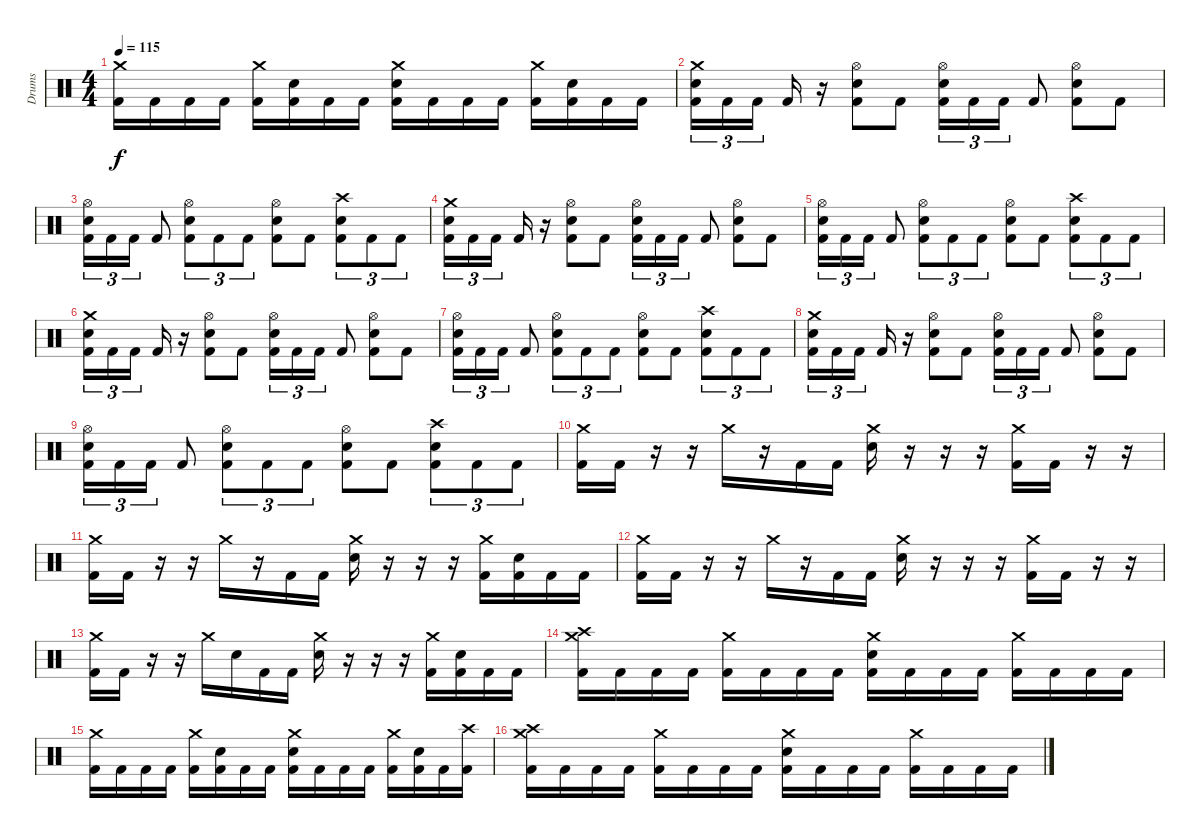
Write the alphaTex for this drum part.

\track ("Drums" "Drums") {instrument percussion}
\staff {score}
\articulation defaults
\ts (4 4)
\tempo 115
\clef neutral
\ks c
("Crash medium (hit)" "Kick (hit) 2").16{dy f} "Kick (hit) 2".16 "Kick (hit) 2".16 "Kick (hit) 2".16 ("Crash medium (hit)" "Kick (hit) 2").16 ("Snare (hit) 2" "Kick (hit) 2").16 "Kick (hit) 2".16 "Kick (hit) 2".16 ("Crash medium (hit)" "Snare (hit) 2" "Kick (hit) 2").16 "Kick (hit) 2".16 "Kick (hit) 2".16 "Kick (hit) 2".16 ("Crash medium (hit)" "Kick (hit) 2").16 ("Snare (hit) 2" "Kick (hit) 2").16 "Kick (hit) 2".16 "Kick (hit) 2".16 |
("Crash medium (hit)" "Snare (hit) 2" "Kick (hit) 2").16{tu (3 2)} "Kick (hit) 2".16{tu (3 2)} "Kick (hit) 2".16{tu (3 2) beam splitsecondary} "Kick (hit) 2".16 r.16 ("Hi-Hat (open)" "Snare (hit) 2" "Kick (hit) 2").8 "Kick (hit) 2".8 ("Hi-Hat (open)" "Snare (hit) 2" "Kick (hit) 2").16{tu (3 2)} "Kick (hit) 2".16{tu (3 2)} "Kick (hit) 2".16{tu (3 2)} "Kick (hit) 2".8 ("Hi-Hat (open)" "Snare (hit) 2" "Kick (hit) 2").8 "Kick (hit) 2".8 |
("Hi-Hat (open)" "Snare (hit) 2" "Kick (hit) 2").16{tu (3 2)} "Kick (hit) 2".16{tu (3 2)} "Kick (hit) 2".16{tu (3 2)} "Kick (hit) 2".8 ("Hi-Hat (open)" "Snare (hit) 2" "Kick (hit) 2").8{tu (3 2)} "Kick (hit) 2".8{tu (3 2)} "Kick (hit) 2".8{tu (3 2)} ("Hi-Hat (open)" "Snare (hit) 2" "Kick (hit) 2").8 "Kick (hit) 2".8 ("Crash high (hit)" "Snare (hit) 2" "Kick (hit) 2").8{tu (3 2)} "Kick (hit) 2".8{tu (3 2)} "Kick (hit) 2".8{tu (3 2)} |
("Crash medium (hit)" "Snare (hit) 2" "Kick (hit) 2").16{tu (3 2)} "Kick (hit) 2".16{tu (3 2)} "Kick (hit) 2".16{tu (3 2) beam splitsecondary} "Kick (hit) 2".16 r.16 ("Hi-Hat (open)" "Snare (hit) 2" "Kick (hit) 2").8 "Kick (hit) 2".8 ("Hi-Hat (open)" "Snare (hit) 2" "Kick (hit) 2").16{tu (3 2)} "Kick (hit) 2".16{tu (3 2)} "Kick (hit) 2".16{tu (3 2)} "Kick (hit) 2".8 ("Hi-Hat (open)" "Snare (hit) 2" "Kick (hit) 2").8 "Kick (hit) 2".8 |
("Hi-Hat (open)" "Snare (hit) 2" "Kick (hit) 2").16{tu (3 2)} "Kick (hit) 2".16{tu (3 2)} "Kick (hit) 2".16{tu (3 2)} "Kick (hit) 2".8 ("Hi-Hat (open)" "Snare (hit) 2" "Kick (hit) 2").8{tu (3 2)} "Kick (hit) 2".8{tu (3 2)} "Kick (hit) 2".8{tu (3 2)} ("Hi-Hat (open)" "Snare (hit) 2" "Kick (hit) 2").8 "Kick (hit) 2".8 ("Crash high (hit)" "Snare (hit) 2" "Kick (hit) 2").8{tu (3 2)} "Kick (hit) 2".8{tu (3 2)} "Kick (hit) 2".8{tu (3 2)} |
("Crash medium (hit)" "Snare (hit) 2" "Kick (hit) 2").16{tu (3 2)} "Kick (hit) 2".16{tu (3 2)} "Kick (hit) 2".16{tu (3 2) beam splitsecondary} "Kick (hit) 2".16 r.16 ("Hi-Hat (open)" "Snare (hit) 2" "Kick (hit) 2").8 "Kick (hit) 2".8 ("Hi-Hat (open)" "Snare (hit) 2" "Kick (hit) 2").16{tu (3 2)} "Kick (hit) 2".16{tu (3 2)} "Kick (hit) 2".16{tu (3 2)} "Kick (hit) 2".8 ("Hi-Hat (open)" "Snare (hit) 2" "Kick (hit) 2").8 "Kick (hit) 2".8 |
("Hi-Hat (open)" "Snare (hit) 2" "Kick (hit) 2").16{tu (3 2)} "Kick (hit) 2".16{tu (3 2)} "Kick (hit) 2".16{tu (3 2)} "Kick (hit) 2".8 ("Hi-Hat (open)" "Snare (hit) 2" "Kick (hit) 2").8{tu (3 2)} "Kick (hit) 2".8{tu (3 2)} "Kick (hit) 2".8{tu (3 2)} ("Hi-Hat (open)" "Snare (hit) 2" "Kick (hit) 2").8 "Kick (hit) 2".8 ("Crash high (hit)" "Snare (hit) 2" "Kick (hit) 2").8{tu (3 2)} "Kick (hit) 2".8{tu (3 2)} "Kick (hit) 2".8{tu (3 2)} |
("Crash medium (hit)" "Snare (hit) 2" "Kick (hit) 2").16{tu (3 2)} "Kick (hit) 2".16{tu (3 2)} "Kick (hit) 2".16{tu (3 2) beam splitsecondary} "Kick (hit) 2".16 r.16 ("Hi-Hat (open)" "Snare (hit) 2" "Kick (hit) 2").8 "Kick (hit) 2".8 ("Hi-Hat (open)" "Snare (hit) 2" "Kick (hit) 2").16{tu (3 2)} "Kick (hit) 2".16{tu (3 2)} "Kick (hit) 2".16{tu (3 2)} "Kick (hit) 2".8 ("Hi-Hat (open)" "Snare (hit) 2" "Kick (hit) 2").8 "Kick (hit) 2".8 |
("Hi-Hat (open)" "Snare (hit) 2" "Kick (hit) 2").16{tu (3 2)} "Kick (hit) 2".16{tu (3 2)} "Kick (hit) 2".16{tu (3 2)} "Kick (hit) 2".8 ("Hi-Hat (open)" "Snare (hit) 2" "Kick (hit) 2").8{tu (3 2)} "Kick (hit) 2".8{tu (3 2)} "Kick (hit) 2".8{tu (3 2)} ("Hi-Hat (open)" "Snare (hit) 2" "Kick (hit) 2").8 "Kick (hit) 2".8 ("Crash high (hit)" "Snare (hit) 2" "Kick (hit) 2").8{tu (3 2)} "Kick (hit) 2".8{tu (3 2)} "Kick (hit) 2".8{tu (3 2)} |
("Crash medium (hit)" "Kick (hit) 2").16 "Kick (hit) 2".16 r.16 r.16 "Crash medium (hit)".16 r.16 "Kick (hit) 2".16 "Kick (hit) 2".16 ("Crash medium (hit)" "Snare (hit) 2").16 r.16 r.16 r.16 ("Crash medium (hit)" "Kick (hit) 2").16 "Kick (hit) 2".16 r.16 r.16 |
("Crash medium (hit)" "Kick (hit) 2").16 "Kick (hit) 2".16 r.16 r.16 "Crash medium (hit)".16 r.16 "Kick (hit) 2".16 "Kick (hit) 2".16 ("Crash medium (hit)" "Snare (hit) 2").16 r.16 r.16 r.16 ("Crash medium (hit)" "Kick (hit) 2").16 ("Snare (hit) 2" "Kick (hit) 2").16 "Kick (hit) 2".16 "Kick (hit) 2".16 |
("Crash medium (hit)" "Kick (hit) 2").16 "Kick (hit) 2".16 r.16 r.16 "Crash medium (hit)".16 r.16 "Kick (hit) 2".16 "Kick (hit) 2".16 ("Crash medium (hit)" "Snare (hit) 2").16 r.16 r.16 r.16 ("Crash medium (hit)" "Kick (hit) 2").16 "Kick (hit) 2".16 r.16 r.16 |
("Crash medium (hit)" "Kick (hit) 2").16 "Kick (hit) 2".16 r.16 r.16 "Crash medium (hit)".16 "Snare (hit) 2".16 "Kick (hit) 2".16 "Kick (hit) 2".16 ("Crash medium (hit)" "Snare (hit) 2").16 r.16 r.16 r.16 ("Crash medium (hit)" "Kick (hit) 2").16 ("Snare (hit) 2" "Kick (hit) 2").16 "Kick (hit) 2".16 "Kick (hit) 2".16 |
("Crash high (hit)" "Crash medium (hit)" "Kick (hit) 2").16 "Kick (hit) 2".16 "Kick (hit) 2".16 "Kick (hit) 2".16 ("Crash medium (hit)" "Kick (hit) 2").16 "Kick (hit) 2".16 "Kick (hit) 2".16 "Kick (hit) 2".16 ("Crash medium (hit)" "Snare (hit) 2" "Kick (hit) 2").16 "Kick (hit) 2".16 "Kick (hit) 2".16 "Kick (hit) 2".16 ("Crash medium (hit)" "Kick (hit) 2").16 "Kick (hit) 2".16 "Kick (hit) 2".16 "Kick (hit) 2".16 |
("Crash medium (hit)" "Kick (hit) 2").16 "Kick (hit) 2".16 "Kick (hit) 2".16 "Kick (hit) 2".16 ("Crash medium (hit)" "Kick (hit) 2").16 ("Snare (hit) 2" "Kick (hit) 2").16 "Kick (hit) 2".16 "Kick (hit) 2".16 ("Crash medium (hit)" "Snare (hit) 2" "Kick (hit) 2").16 "Kick (hit) 2".16 "Kick (hit) 2".16 "Kick (hit) 2".16 ("Crash medium (hit)" "Kick (hit) 2").16 ("Snare (hit) 2" "Kick (hit) 2").16 "Kick (hit) 2".16 ("Crash high (hit)" "Kick (hit) 2").16 |
("Crash high (hit)" "Crash medium (hit)" "Kick (hit) 2").16 "Kick (hit) 2".16 "Kick (hit) 2".16 "Kick (hit) 2".16 ("Crash medium (hit)" "Kick (hit) 2").16 "Kick (hit) 2".16 "Kick (hit) 2".16 "Kick (hit) 2".16 ("Crash medium (hit)" "Snare (hit) 2" "Kick (hit) 2").16 "Kick (hit) 2".16 "Kick (hit) 2".16 "Kick (hit) 2".16 ("Crash medium (hit)" "Kick (hit) 2").16 "Kick (hit) 2".16 "Kick (hit) 2".16 "Kick (hit) 2".16
